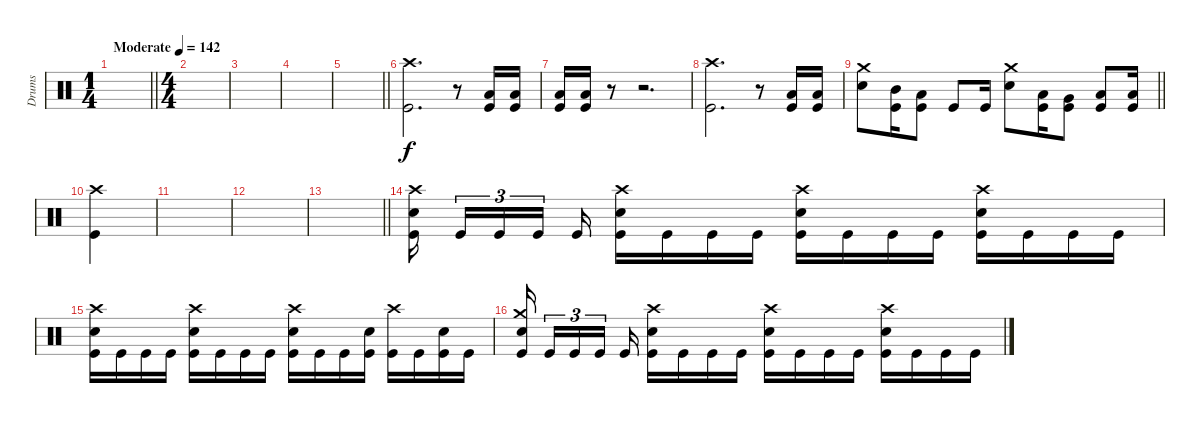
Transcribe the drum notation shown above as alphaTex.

\track ("Drums" "Drums") {instrument percussion}
\staff
\articulation defaults
\ts (1 4)
\tempo (142 "Moderate")
\clef neutral
\barLineRight lightlight
\ks c
|
\ts (4 4)
|
|
|
\barLineRight lightlight
|
("Crash high (hit)" "Kick (hit)").2{d} r.8 ("Low Floor Tom (hit)" "Kick (hit)").16 ("Low Floor Tom (hit)" "Kick (hit)").16 |
("Low Floor Tom (hit)" "Kick (hit)").16 ("Low Floor Tom (hit)" "Kick (hit)").16 r.8 r.2{d} |
("Crash high (hit)" "Kick (hit)").2{d} r.8 ("Low Floor Tom (hit)" "Kick (hit)").16 ("Low Floor Tom (hit)" "Kick (hit)").16 |
\barLineRight lightlight
("Crash medium (hit)" "Electric Snare (hit)").8 ("Mid Tom (hit)" "Kick (hit)").16 ("Low Tom (hit)" "Kick (hit)").8 "Kick (hit)".8 "Kick (hit)".16 ("Crash medium (hit)" "Electric Snare (hit)").8 ("Low Tom (hit)" "Kick (hit)").16 ("Very Low Tom (hit)" "Kick (hit)").8 ("Low Floor Tom (hit)" "Kick (hit)").8 ("Low Floor Tom (hit)" "Kick (hit)").16 |
("Crash high (hit)" "Kick (hit)").4 |
|
|
\barLineRight lightlight
|
("Crash high (hit)" "Electric Snare (hit)" "Kick (hit)").16{beam splitsecondary} "Kick (hit)".16{tu (3 2)} "Kick (hit)".16{tu (3 2)} "Kick (hit)".16{tu (3 2) beam splitsecondary} "Kick (hit)".16 ("Crash high (hit)" "Electric Snare (hit)" "Kick (hit)").16 "Kick (hit)".16 "Kick (hit)".16 "Kick (hit)".16 ("Crash high (hit)" "Electric Snare (hit)" "Kick (hit)").16 "Kick (hit)".16 "Kick (hit)".16 "Kick (hit)".16 ("Crash high (hit)" "Electric Snare (hit)" "Kick (hit)").16 "Kick (hit)".16 "Kick (hit)".16 "Kick (hit)".16 |
("Crash high (hit)" "Electric Snare (hit)" "Kick (hit)").16 "Kick (hit)".16 "Kick (hit)".16 "Kick (hit)".16 ("Crash high (hit)" "Electric Snare (hit)" "Kick (hit)").16 "Kick (hit)".16 "Kick (hit)".16 "Kick (hit)".16 ("Crash high (hit)" "Electric Snare (hit)" "Kick (hit)").16 "Kick (hit)".16 "Kick (hit)".16 ("Electric Snare (hit)" "Kick (hit)").16 ("Crash high (hit)" "Kick (hit)").16 "Kick (hit)".16 ("Electric Snare (hit)" "Kick (hit)").16 "Kick (hit)".16 |
("Crash medium (hit)" "Electric Snare (hit)" "Kick (hit)").16{beam splitsecondary} "Kick (hit)".16{tu (3 2)} "Kick (hit)".16{tu (3 2)} "Kick (hit)".16{tu (3 2) beam splitsecondary} "Kick (hit)".16 ("Crash high (hit)" "Electric Snare (hit)" "Kick (hit)").16 "Kick (hit)".16 "Kick (hit)".16 "Kick (hit)".16 ("Crash high (hit)" "Electric Snare (hit)" "Kick (hit)").16 "Kick (hit)".16 "Kick (hit)".16 "Kick (hit)".16 ("Crash high (hit)" "Electric Snare (hit)" "Kick (hit)").16 "Kick (hit)".16 "Kick (hit)".16 "Kick (hit)".16
